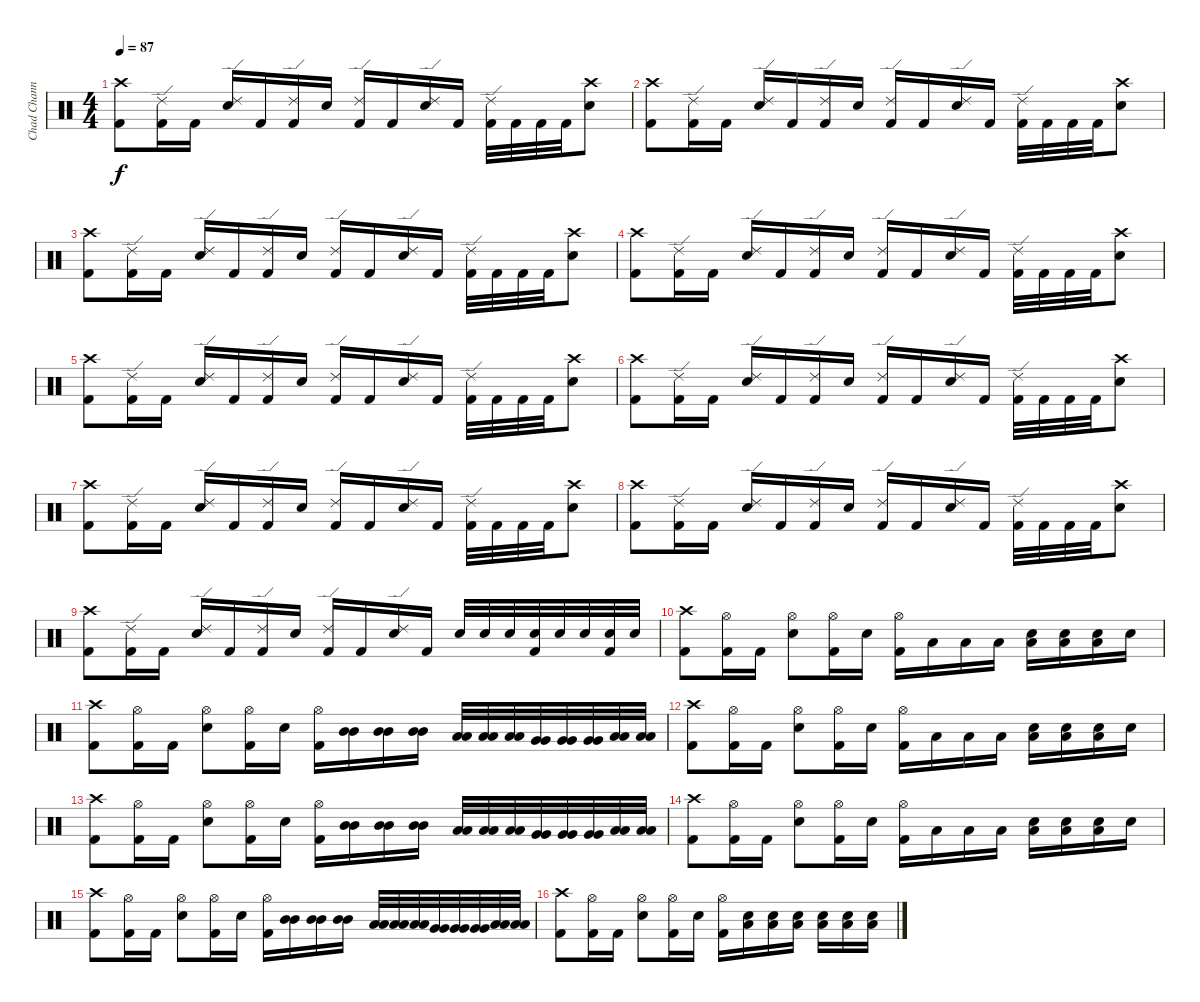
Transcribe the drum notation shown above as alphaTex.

\track ("Chad Channing" "Chad Chann") {instrument percussion}
\staff {score}
\articulation defaults
\ts (4 4)
\tempo 87
\clef neutral
\ks c
("Crash high (hit)" "Kick (hit) 2").8{dy f} ("Ride (edge) 2" "Kick (hit) 2").16 "Kick (hit) 2".16 ("Ride (edge) 2" "Snare (hit) 2").16 "Kick (hit) 2".16 ("Ride (edge) 2" "Kick (hit) 2").16 "Snare (hit) 2".16 ("Ride (edge) 2" "Kick (hit) 2").16 "Kick (hit) 2".16 ("Ride (edge) 2" "Snare (hit) 2").16 "Kick (hit) 2".16 ("Ride (edge) 2" "Kick (hit) 2").32 "Kick (hit) 2".32 "Kick (hit) 2".32 "Kick (hit) 2".32 ("Crash high (hit)" "Snare (hit) 2").8 |
("Crash high (hit)" "Kick (hit) 2").8 ("Ride (edge) 2" "Kick (hit) 2").16 "Kick (hit) 2".16 ("Ride (edge) 2" "Snare (hit) 2").16 "Kick (hit) 2".16 ("Ride (edge) 2" "Kick (hit) 2").16 "Snare (hit) 2".16 ("Ride (edge) 2" "Kick (hit) 2").16 "Kick (hit) 2".16 ("Ride (edge) 2" "Snare (hit) 2").16 "Kick (hit) 2".16 ("Ride (edge) 2" "Kick (hit) 2").32 "Kick (hit) 2".32 "Kick (hit) 2".32 "Kick (hit) 2".32 ("Crash high (hit)" "Snare (hit) 2").8 |
("Crash high (hit)" "Kick (hit) 2").8 ("Ride (edge) 2" "Kick (hit) 2").16 "Kick (hit) 2".16 ("Ride (edge) 2" "Snare (hit) 2").16 "Kick (hit) 2".16 ("Ride (edge) 2" "Kick (hit) 2").16 "Snare (hit) 2".16 ("Ride (edge) 2" "Kick (hit) 2").16 "Kick (hit) 2".16 ("Ride (edge) 2" "Snare (hit) 2").16 "Kick (hit) 2".16 ("Ride (edge) 2" "Kick (hit) 2").32 "Kick (hit) 2".32 "Kick (hit) 2".32 "Kick (hit) 2".32 ("Crash high (hit)" "Snare (hit) 2").8 |
("Crash high (hit)" "Kick (hit) 2").8 ("Ride (edge) 2" "Kick (hit) 2").16 "Kick (hit) 2".16 ("Ride (edge) 2" "Snare (hit) 2").16 "Kick (hit) 2".16 ("Ride (edge) 2" "Kick (hit) 2").16 "Snare (hit) 2".16 ("Ride (edge) 2" "Kick (hit) 2").16 "Kick (hit) 2".16 ("Ride (edge) 2" "Snare (hit) 2").16 "Kick (hit) 2".16 ("Ride (edge) 2" "Kick (hit) 2").32 "Kick (hit) 2".32 "Kick (hit) 2".32 "Kick (hit) 2".32 ("Crash high (hit)" "Snare (hit) 2").8 |
("Crash high (hit)" "Kick (hit) 2").8 ("Ride (edge) 2" "Kick (hit) 2").16 "Kick (hit) 2".16 ("Ride (edge) 2" "Snare (hit) 2").16 "Kick (hit) 2".16 ("Ride (edge) 2" "Kick (hit) 2").16 "Snare (hit) 2".16 ("Ride (edge) 2" "Kick (hit) 2").16 "Kick (hit) 2".16 ("Ride (edge) 2" "Snare (hit) 2").16 "Kick (hit) 2".16 ("Ride (edge) 2" "Kick (hit) 2").32 "Kick (hit) 2".32 "Kick (hit) 2".32 "Kick (hit) 2".32 ("Crash high (hit)" "Snare (hit) 2").8 |
("Crash high (hit)" "Kick (hit) 2").8 ("Ride (edge) 2" "Kick (hit) 2").16 "Kick (hit) 2".16 ("Ride (edge) 2" "Snare (hit) 2").16 "Kick (hit) 2".16 ("Ride (edge) 2" "Kick (hit) 2").16 "Snare (hit) 2".16 ("Ride (edge) 2" "Kick (hit) 2").16 "Kick (hit) 2".16 ("Ride (edge) 2" "Snare (hit) 2").16 "Kick (hit) 2".16 ("Ride (edge) 2" "Kick (hit) 2").32 "Kick (hit) 2".32 "Kick (hit) 2".32 "Kick (hit) 2".32 ("Crash high (hit)" "Snare (hit) 2").8 |
("Crash high (hit)" "Kick (hit) 2").8 ("Ride (edge) 2" "Kick (hit) 2").16 "Kick (hit) 2".16 ("Ride (edge) 2" "Snare (hit) 2").16 "Kick (hit) 2".16 ("Ride (edge) 2" "Kick (hit) 2").16 "Snare (hit) 2".16 ("Ride (edge) 2" "Kick (hit) 2").16 "Kick (hit) 2".16 ("Ride (edge) 2" "Snare (hit) 2").16 "Kick (hit) 2".16 ("Ride (edge) 2" "Kick (hit) 2").32 "Kick (hit) 2".32 "Kick (hit) 2".32 "Kick (hit) 2".32 ("Crash high (hit)" "Snare (hit) 2").8 |
("Crash high (hit)" "Kick (hit) 2").8 ("Ride (edge) 2" "Kick (hit) 2").16 "Kick (hit) 2".16 ("Ride (edge) 2" "Snare (hit) 2").16 "Kick (hit) 2".16 ("Ride (edge) 2" "Kick (hit) 2").16 "Snare (hit) 2".16 ("Ride (edge) 2" "Kick (hit) 2").16 "Kick (hit) 2".16 ("Ride (edge) 2" "Snare (hit) 2").16 "Kick (hit) 2".16 ("Ride (edge) 2" "Kick (hit) 2").32 "Kick (hit) 2".32 "Kick (hit) 2".32 "Kick (hit) 2".32 ("Crash high (hit)" "Snare (hit) 2").8 |
("Crash high (hit)" "Kick (hit) 2").8 ("Ride (edge) 2" "Kick (hit) 2").16 "Kick (hit) 2".16 ("Ride (edge) 2" "Snare (hit) 2").16 "Kick (hit) 2".16 ("Ride (edge) 2" "Kick (hit) 2").16 "Snare (hit) 2".16 ("Ride (edge) 2" "Kick (hit) 2").16 "Kick (hit) 2".16 ("Ride (edge) 2" "Snare (hit) 2").16 "Kick (hit) 2".16 "Snare (hit) 2".32 "Snare (hit) 2".32 "Snare (hit) 2".32 ("Snare (hit) 2" "Kick (hit) 2").32 "Snare (hit) 2".32 "Snare (hit) 2".32 ("Snare (hit) 2" "Kick (hit) 2").32 "Snare (hit) 2".32 |
("Crash high (hit)" "Kick (hit) 2").8 ("Hi-Hat (open)" "Kick (hit) 2").16 "Kick (hit) 2".16 ("Hi-Hat (open)" "Snare (hit) 2").8 ("Hi-Hat (open)" "Kick (hit) 2").16 "Snare (hit) 2".16 ("Hi-Hat (open)" "Kick (hit) 2").16 "Low Tom (hit)".16 "Low Tom (hit)".16 "Low Tom (hit)".16 ("Snare (hit) 2" "Low Tom (hit)").16 ("Snare (hit) 2" "Low Tom (hit)").16 ("Snare (hit) 2" "Low Tom (hit)").16 "Snare (hit) 2".16 |
("Crash high (hit)" "Kick (hit) 2").8 ("Hi-Hat (open)" "Kick (hit) 2").16 "Kick (hit) 2".16 ("Hi-Hat (open)" "Snare (hit) 2").8 ("Hi-Hat (open)" "Kick (hit) 2").16 "Snare (hit) 2".16 ("Hi-Hat (open)" "Kick (hit) 2").16 ("Mid Tom (hit)" "Mid Tom (hit)").16 ("Mid Tom (hit)" "Mid Tom (hit)").16 ("Mid Tom (hit)" "Mid Tom (hit)").16 ("Low Tom (hit)" "Low Tom (hit)").32 ("Low Tom (hit)" "Low Tom (hit)").32 ("Low Tom (hit)" "Low Tom (hit)").32 ("Very Low Tom (hit)" "Very Low Tom (hit)").32 ("Very Low Tom (hit)" "Very Low Tom (hit)").32 ("Very Low Tom (hit)" "Very Low Tom (hit)").32 ("Low Floor Tom (hit)" "Low Floor Tom (hit)").32 ("Low Floor Tom (hit)" "Low Floor Tom (hit)").32 |
("Crash high (hit)" "Kick (hit) 2").8 ("Hi-Hat (open)" "Kick (hit) 2").16 "Kick (hit) 2".16 ("Hi-Hat (open)" "Snare (hit) 2").8 ("Hi-Hat (open)" "Kick (hit) 2").16 "Snare (hit) 2".16 ("Hi-Hat (open)" "Kick (hit) 2").16 "Low Tom (hit)".16 "Low Tom (hit)".16 "Low Tom (hit)".16 ("Snare (hit) 2" "Low Tom (hit)").16 ("Snare (hit) 2" "Low Tom (hit)").16 ("Snare (hit) 2" "Low Tom (hit)").16 "Snare (hit) 2".16 |
("Crash high (hit)" "Kick (hit) 2").8 ("Hi-Hat (open)" "Kick (hit) 2").16 "Kick (hit) 2".16 ("Hi-Hat (open)" "Snare (hit) 2").8 ("Hi-Hat (open)" "Kick (hit) 2").16 "Snare (hit) 2".16 ("Hi-Hat (open)" "Kick (hit) 2").16 ("Mid Tom (hit)" "Mid Tom (hit)").16 ("Mid Tom (hit)" "Mid Tom (hit)").16 ("Mid Tom (hit)" "Mid Tom (hit)").16 ("Low Tom (hit)" "Low Tom (hit)").32 ("Low Tom (hit)" "Low Tom (hit)").32 ("Low Tom (hit)" "Low Tom (hit)").32 ("Very Low Tom (hit)" "Very Low Tom (hit)").32 ("Very Low Tom (hit)" "Very Low Tom (hit)").32 ("Very Low Tom (hit)" "Very Low Tom (hit)").32 ("Low Floor Tom (hit)" "Low Floor Tom (hit)").32 ("Low Floor Tom (hit)" "Low Floor Tom (hit)").32 |
("Crash high (hit)" "Kick (hit) 2").8 ("Hi-Hat (open)" "Kick (hit) 2").16 "Kick (hit) 2".16 ("Hi-Hat (open)" "Snare (hit) 2").8 ("Hi-Hat (open)" "Kick (hit) 2").16 "Snare (hit) 2".16 ("Hi-Hat (open)" "Kick (hit) 2").16 "Low Tom (hit)".16 "Low Tom (hit)".16 "Low Tom (hit)".16 ("Snare (hit) 2" "Low Tom (hit)").16 ("Snare (hit) 2" "Low Tom (hit)").16 ("Snare (hit) 2" "Low Tom (hit)").16 "Snare (hit) 2".16 |
("Crash high (hit)" "Kick (hit) 2").8 ("Hi-Hat (open)" "Kick (hit) 2").16 "Kick (hit) 2".16 ("Hi-Hat (open)" "Snare (hit) 2").8 ("Hi-Hat (open)" "Kick (hit) 2").16 "Snare (hit) 2".16 ("Hi-Hat (open)" "Kick (hit) 2").16 ("Mid Tom (hit)" "Mid Tom (hit)").16 ("Mid Tom (hit)" "Mid Tom (hit)").16 ("Mid Tom (hit)" "Mid Tom (hit)").16 ("Low Tom (hit)" "Low Tom (hit)").32 ("Low Tom (hit)" "Low Tom (hit)").32 ("Low Tom (hit)" "Low Tom (hit)").32 ("Very Low Tom (hit)" "Very Low Tom (hit)").32 ("Very Low Tom (hit)" "Very Low Tom (hit)").32 ("Very Low Tom (hit)" "Very Low Tom (hit)").32 ("Low Floor Tom (hit)" "Low Floor Tom (hit)").32 ("Low Floor Tom (hit)" "Low Floor Tom (hit)").32 |
("Crash high (hit)" "Kick (hit) 2").8 ("Hi-Hat (open)" "Kick (hit) 2").16 "Kick (hit) 2".16 ("Hi-Hat (open)" "Snare (hit) 2").8 ("Hi-Hat (open)" "Kick (hit) 2").16 "Snare (hit) 2".16 ("Hi-Hat (open)" "Kick (hit) 2").16 ("Snare (hit) 2" "Low Tom (hit)").16 ("Snare (hit) 2" "Low Tom (hit)").16 ("Snare (hit) 2" "Low Tom (hit)").16 ("Snare (hit) 2" "Low Tom (hit)").16 ("Snare (hit) 2" "Low Tom (hit)").16 ("Snare (hit) 2" "Low Tom (hit)").16
